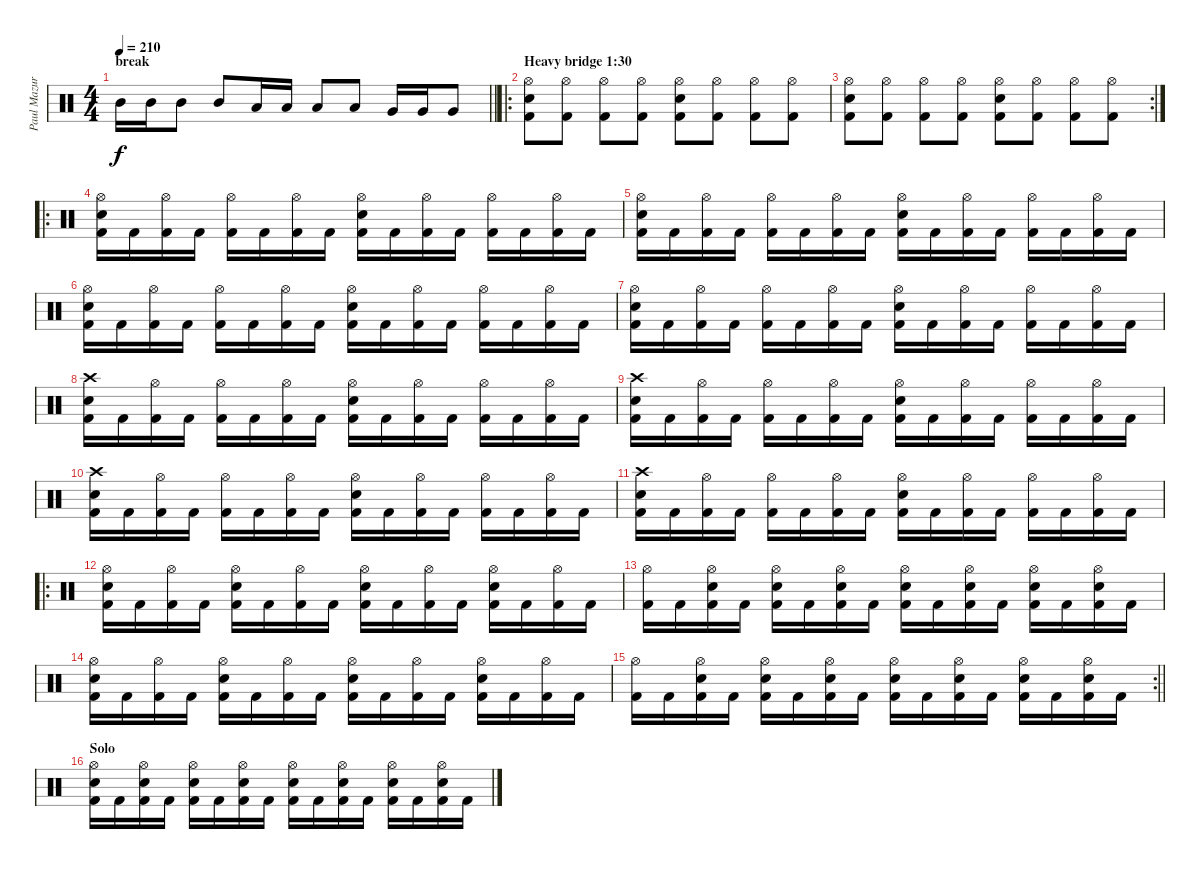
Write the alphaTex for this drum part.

\track ("Paul Mazurkiewicz" "Paul Mazur") {instrument percussion}
\staff {score}
\articulation defaults
\ts (4 4)
\section ("" "break")
\tempo 210
\clef neutral
\barLineRight lightlight
\ks c "Mid Tom (hit)".16{dy f} "Mid Tom (hit)".16 "Mid Tom (hit)".8 "Mid Tom (hit)".8 "Low Tom (hit)".16 "Low Tom (hit)".16 "Low Tom (hit)".8 "Low Tom (hit)".8 "Very Low Tom (hit)".16 "Very Low Tom (hit)".16 "Very Low Tom (hit)".8
|
\ro
\section ("" "Heavy bridge 1:30")
("Hi-Hat (open)" "Snare (hit) 2" "Kick (hit) 2").8 ("Hi-Hat (open)" "Kick (hit) 2").8 ("Hi-Hat (open)" "Kick (hit) 2").8 ("Hi-Hat (open)" "Kick (hit) 2").8 ("Hi-Hat (open)" "Snare (hit) 2" "Kick (hit) 2").8 ("Hi-Hat (open)" "Kick (hit) 2").8 ("Hi-Hat (open)" "Kick (hit) 2").8 ("Hi-Hat (open)" "Kick (hit) 2").8 |
\rc 2
("Hi-Hat (open)" "Snare (hit) 2" "Kick (hit) 2").8 ("Hi-Hat (open)" "Kick (hit) 2").8 ("Hi-Hat (open)" "Kick (hit) 2").8 ("Hi-Hat (open)" "Kick (hit) 2").8 ("Hi-Hat (open)" "Snare (hit) 2" "Kick (hit) 2").8 ("Hi-Hat (open)" "Kick (hit) 2").8 ("Hi-Hat (open)" "Kick (hit) 2").8 ("Hi-Hat (open)" "Kick (hit) 2").8 |
\ro
("Hi-Hat (open)" "Snare (hit) 2" "Kick (hit) 2").16 "Kick (hit) 2".16 ("Hi-Hat (open)" "Kick (hit) 2").16 "Kick (hit) 2".16 ("Hi-Hat (open)" "Kick (hit) 2").16 "Kick (hit) 2".16 ("Hi-Hat (open)" "Kick (hit) 2").16 "Kick (hit) 2".16 ("Hi-Hat (open)" "Snare (hit) 2" "Kick (hit) 2").16 "Kick (hit) 2".16 ("Hi-Hat (open)" "Kick (hit) 2").16 "Kick (hit) 2".16 ("Hi-Hat (open)" "Kick (hit) 2").16 "Kick (hit) 2".16 ("Hi-Hat (open)" "Kick (hit) 2").16 "Kick (hit) 2".16 |
("Hi-Hat (open)" "Snare (hit) 2" "Kick (hit) 2").16 "Kick (hit) 2".16 ("Hi-Hat (open)" "Kick (hit) 2").16 "Kick (hit) 2".16 ("Hi-Hat (open)" "Kick (hit) 2").16 "Kick (hit) 2".16 ("Hi-Hat (open)" "Kick (hit) 2").16 "Kick (hit) 2".16 ("Hi-Hat (open)" "Snare (hit) 2" "Kick (hit) 2").16 "Kick (hit) 2".16 ("Hi-Hat (open)" "Kick (hit) 2").16 "Kick (hit) 2".16 ("Hi-Hat (open)" "Kick (hit) 2").16 "Kick (hit) 2".16 ("Hi-Hat (open)" "Kick (hit) 2").16 "Kick (hit) 2".16 |
("Hi-Hat (open)" "Snare (hit) 2" "Kick (hit) 2").16 "Kick (hit) 2".16 ("Hi-Hat (open)" "Kick (hit) 2").16 "Kick (hit) 2".16 ("Hi-Hat (open)" "Kick (hit) 2").16 "Kick (hit) 2".16 ("Hi-Hat (open)" "Kick (hit) 2").16 "Kick (hit) 2".16 ("Hi-Hat (open)" "Snare (hit) 2" "Kick (hit) 2").16 "Kick (hit) 2".16 ("Hi-Hat (open)" "Kick (hit) 2").16 "Kick (hit) 2".16 ("Hi-Hat (open)" "Kick (hit) 2").16 "Kick (hit) 2".16 ("Hi-Hat (open)" "Kick (hit) 2").16 "Kick (hit) 2".16 |
("Hi-Hat (open)" "Snare (hit) 2" "Kick (hit) 2").16 "Kick (hit) 2".16 ("Hi-Hat (open)" "Kick (hit) 2").16 "Kick (hit) 2".16 ("Hi-Hat (open)" "Kick (hit) 2").16 "Kick (hit) 2".16 ("Hi-Hat (open)" "Kick (hit) 2").16 "Kick (hit) 2".16 ("Hi-Hat (open)" "Snare (hit) 2" "Kick (hit) 2").16 "Kick (hit) 2".16 ("Hi-Hat (open)" "Kick (hit) 2").16 "Kick (hit) 2".16 ("Hi-Hat (open)" "Kick (hit) 2").16 "Kick (hit) 2".16 ("Hi-Hat (open)" "Kick (hit) 2").16 "Kick (hit) 2".16 |
("Crash high (hit)" "Snare (hit) 2" "Kick (hit) 2").16 "Kick (hit) 2".16 ("Hi-Hat (open)" "Kick (hit) 2").16 "Kick (hit) 2".16 ("Hi-Hat (open)" "Kick (hit) 2").16 "Kick (hit) 2".16 ("Hi-Hat (open)" "Kick (hit) 2").16 "Kick (hit) 2".16 ("Hi-Hat (open)" "Snare (hit) 2" "Kick (hit) 2").16 "Kick (hit) 2".16 ("Hi-Hat (open)" "Kick (hit) 2").16 "Kick (hit) 2".16 ("Hi-Hat (open)" "Kick (hit) 2").16 "Kick (hit) 2".16 ("Hi-Hat (open)" "Kick (hit) 2").16 "Kick (hit) 2".16 |
("Crash high (hit)" "Snare (hit) 2" "Kick (hit) 2").16 "Kick (hit) 2".16 ("Hi-Hat (open)" "Kick (hit) 2").16 "Kick (hit) 2".16 ("Hi-Hat (open)" "Kick (hit) 2").16 "Kick (hit) 2".16 ("Hi-Hat (open)" "Kick (hit) 2").16 "Kick (hit) 2".16 ("Hi-Hat (open)" "Snare (hit) 2" "Kick (hit) 2").16 "Kick (hit) 2".16 ("Hi-Hat (open)" "Kick (hit) 2").16 "Kick (hit) 2".16 ("Hi-Hat (open)" "Kick (hit) 2").16 "Kick (hit) 2".16 ("Hi-Hat (open)" "Kick (hit) 2").16 "Kick (hit) 2".16 |
("Crash high (hit)" "Snare (hit) 2" "Kick (hit) 2").16 "Kick (hit) 2".16 ("Hi-Hat (open)" "Kick (hit) 2").16 "Kick (hit) 2".16 ("Hi-Hat (open)" "Kick (hit) 2").16 "Kick (hit) 2".16 ("Hi-Hat (open)" "Kick (hit) 2").16 "Kick (hit) 2".16 ("Hi-Hat (open)" "Snare (hit) 2" "Kick (hit) 2").16 "Kick (hit) 2".16 ("Hi-Hat (open)" "Kick (hit) 2").16 "Kick (hit) 2".16 ("Hi-Hat (open)" "Kick (hit) 2").16 "Kick (hit) 2".16 ("Hi-Hat (open)" "Kick (hit) 2").16 "Kick (hit) 2".16 |
("Crash high (hit)" "Snare (hit) 2" "Kick (hit) 2").16 "Kick (hit) 2".16 ("Hi-Hat (open)" "Kick (hit) 2").16 "Kick (hit) 2".16 ("Hi-Hat (open)" "Kick (hit) 2").16 "Kick (hit) 2".16 ("Hi-Hat (open)" "Kick (hit) 2").16 "Kick (hit) 2".16 ("Hi-Hat (open)" "Snare (hit) 2" "Kick (hit) 2").16 "Kick (hit) 2".16 ("Hi-Hat (open)" "Kick (hit) 2").16 "Kick (hit) 2".16 ("Hi-Hat (open)" "Kick (hit) 2").16 "Kick (hit) 2".16 ("Hi-Hat (open)" "Kick (hit) 2").16 "Kick (hit) 2".16 |
\ro
("Hi-Hat (open)" "Snare (hit) 2" "Kick (hit) 2").16 "Kick (hit) 2".16 ("Hi-Hat (open)" "Kick (hit) 2").16 "Kick (hit) 2".16 ("Hi-Hat (open)" "Snare (hit) 2" "Kick (hit) 2").16 "Kick (hit) 2".16 ("Hi-Hat (open)" "Kick (hit) 2").16 "Kick (hit) 2".16 ("Hi-Hat (open)" "Snare (hit) 2" "Kick (hit) 2").16 "Kick (hit) 2".16 ("Hi-Hat (open)" "Kick (hit) 2").16 "Kick (hit) 2".16 ("Hi-Hat (open)" "Snare (hit) 2" "Kick (hit) 2").16 "Kick (hit) 2".16 ("Hi-Hat (open)" "Kick (hit) 2").16 "Kick (hit) 2".16 |
("Hi-Hat (open)" "Kick (hit) 2").16 "Kick (hit) 2".16 ("Hi-Hat (open)" "Snare (hit) 2" "Kick (hit) 2").16 "Kick (hit) 2".16 ("Hi-Hat (open)" "Snare (hit) 2" "Kick (hit) 2").16 "Kick (hit) 2".16 ("Hi-Hat (open)" "Snare (hit) 2" "Kick (hit) 2").16 "Kick (hit) 2".16 ("Hi-Hat (open)" "Snare (hit) 2" "Kick (hit) 2").16 "Kick (hit) 2".16 ("Hi-Hat (open)" "Snare (hit) 2" "Kick (hit) 2").16 "Kick (hit) 2".16 ("Hi-Hat (open)" "Snare (hit) 2" "Kick (hit) 2").16 "Kick (hit) 2".16 ("Hi-Hat (open)" "Snare (hit) 2" "Kick (hit) 2").16 "Kick (hit) 2".16 |
("Hi-Hat (open)" "Snare (hit) 2" "Kick (hit) 2").16 "Kick (hit) 2".16 ("Hi-Hat (open)" "Kick (hit) 2").16 "Kick (hit) 2".16 ("Hi-Hat (open)" "Snare (hit) 2" "Kick (hit) 2").16 "Kick (hit) 2".16 ("Hi-Hat (open)" "Kick (hit) 2").16 "Kick (hit) 2".16 ("Hi-Hat (open)" "Snare (hit) 2" "Kick (hit) 2").16 "Kick (hit) 2".16 ("Hi-Hat (open)" "Kick (hit) 2").16 "Kick (hit) 2".16 ("Hi-Hat (open)" "Snare (hit) 2" "Kick (hit) 2").16 "Kick (hit) 2".16 ("Hi-Hat (open)" "Kick (hit) 2").16 "Kick (hit) 2".16 |
\rc 2
\barLineRight lightlight
("Hi-Hat (open)" "Kick (hit) 2").16 "Kick (hit) 2".16 ("Hi-Hat (open)" "Snare (hit) 2" "Kick (hit) 2").16 "Kick (hit) 2".16 ("Hi-Hat (open)" "Snare (hit) 2" "Kick (hit) 2").16 "Kick (hit) 2".16 ("Hi-Hat (open)" "Snare (hit) 2" "Kick (hit) 2").16 "Kick (hit) 2".16 ("Hi-Hat (open)" "Snare (hit) 2" "Kick (hit) 2").16 "Kick (hit) 2".16 ("Hi-Hat (open)" "Snare (hit) 2" "Kick (hit) 2").16 "Kick (hit) 2".16 ("Hi-Hat (open)" "Snare (hit) 2" "Kick (hit) 2").16 "Kick (hit) 2".16 ("Hi-Hat (open)" "Snare (hit) 2" "Kick (hit) 2").16 "Kick (hit) 2".16 |
\section ("" "Solo")
("Hi-Hat (open)" "Snare (hit) 2" "Kick (hit) 2").16 "Kick (hit) 2".16 ("Hi-Hat (open)" "Snare (hit) 2" "Kick (hit) 2").16 "Kick (hit) 2".16 ("Hi-Hat (open)" "Snare (hit) 2" "Kick (hit) 2").16 "Kick (hit) 2".16 ("Hi-Hat (open)" "Snare (hit) 2" "Kick (hit) 2").16 "Kick (hit) 2".16 ("Hi-Hat (open)" "Snare (hit) 2" "Kick (hit) 2").16 "Kick (hit) 2".16 ("Hi-Hat (open)" "Snare (hit) 2" "Kick (hit) 2").16 "Kick (hit) 2".16 ("Hi-Hat (open)" "Snare (hit) 2" "Kick (hit) 2").16 "Kick (hit) 2".16 ("Hi-Hat (open)" "Snare (hit) 2" "Kick (hit) 2").16 "Kick (hit) 2".16
